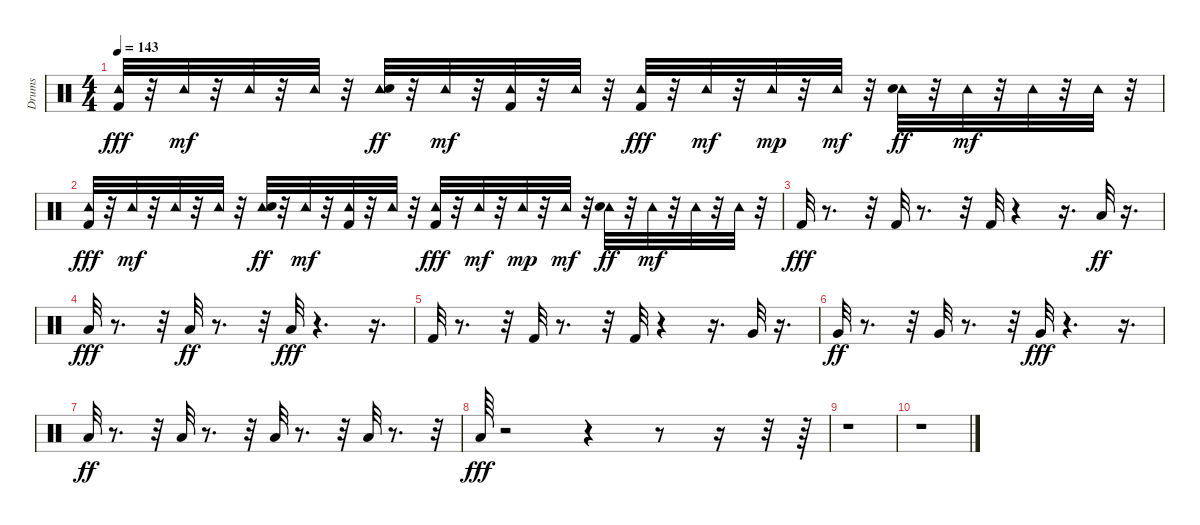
\track ("Drums" "Drums") {instrument percussion}
\staff {score}
\articulation defaults
\ts (4 4)
\tempo 143
\clef neutral
\ks c
("Kick (hit) 2" "Tambourine (hit)").32{dy fff} r.32 "Tambourine (hit)".32{dy mf} r.32 "Tambourine (hit)".32 r.32 "Tambourine (hit)".32 r.32 ("Tambourine (hit)" "Snare (hit) 2").32{dy ff} r.32 "Tambourine (hit)".32{dy mf} r.32 ("Kick (hit) 2" "Tambourine (hit)").32 r.32 "Tambourine (hit)".32 r.32 ("Kick (hit) 2" "Tambourine (hit)").32{dy fff} r.32 "Tambourine (hit)".32{dy mf} r.32 "Tambourine (hit)".32{dy mp} r.32 "Tambourine (hit)".32{dy mf} r.32 ("Tambourine (hit)" "Snare (hit) 2").32{dy ff} r.32 "Tambourine (hit)".32{dy mf} r.32 "Tambourine (hit)".32 r.32 "Tambourine (hit)".32 r.32 |
("Kick (hit) 2" "Tambourine (hit)").32{dy fff} r.32 "Tambourine (hit)".32{dy mf} r.32 "Tambourine (hit)".32 r.32 "Tambourine (hit)".32 r.32 ("Tambourine (hit)" "Snare (hit) 2").32{dy ff} r.32 "Tambourine (hit)".32{dy mf} r.32 ("Kick (hit) 2" "Tambourine (hit)").32 r.32 "Tambourine (hit)".32 r.32 ("Kick (hit) 2" "Tambourine (hit)").32{dy fff} r.32 "Tambourine (hit)".32{dy mf} r.32 "Tambourine (hit)".32{dy mp} r.32 "Tambourine (hit)".32{dy mf} r.32 ("Tambourine (hit)" "Snare (hit) 2").32{dy ff} r.32 "Tambourine (hit)".32{dy mf} r.32 "Tambourine (hit)".32 r.32 "Tambourine (hit)".32 r.32 |
"Kick (hit) 2".32{dy fff} r.8{d} r.32 "Kick (hit) 2".32 r.8{d} r.32 "Kick (hit) 2".32 r.4 r.16{d} "Low Tom (hit)".32{dy ff} r.16{d} |
"Low Tom (hit)".32{dy fff} r.8{d} r.32 "Low Tom (hit)".32{dy ff} r.8{d} r.32 "Low Tom (hit)".32{dy fff} r.4{d} r.16{d} |
"Kick (hit) 2".32 r.8{d} r.32 "Kick (hit) 2".32 r.8{d} r.32 "Kick (hit) 2".32 r.4 r.16{d} "Very Low Tom (hit)".32 r.16{d} |
"Very Low Tom (hit)".32{dy ff} r.8{d} r.32 "Very Low Tom (hit)".32 r.8{d} r.32 "Very Low Tom (hit)".32{dy fff} r.4{d} r.16{d} |
"Low Floor Tom (hit)".32{dy ff} r.8{d} r.32 "Low Floor Tom (hit)".32 r.8{d} r.32 "Low Floor Tom (hit)".32 r.8{d} r.32 "Low Floor Tom (hit)".32 r.8{d} r.32 |
"Low Floor Tom (hit)".64{dy fff} r.2 r.4 r.8 r.16 r.32 r.64 |
r.1 |
r.1
